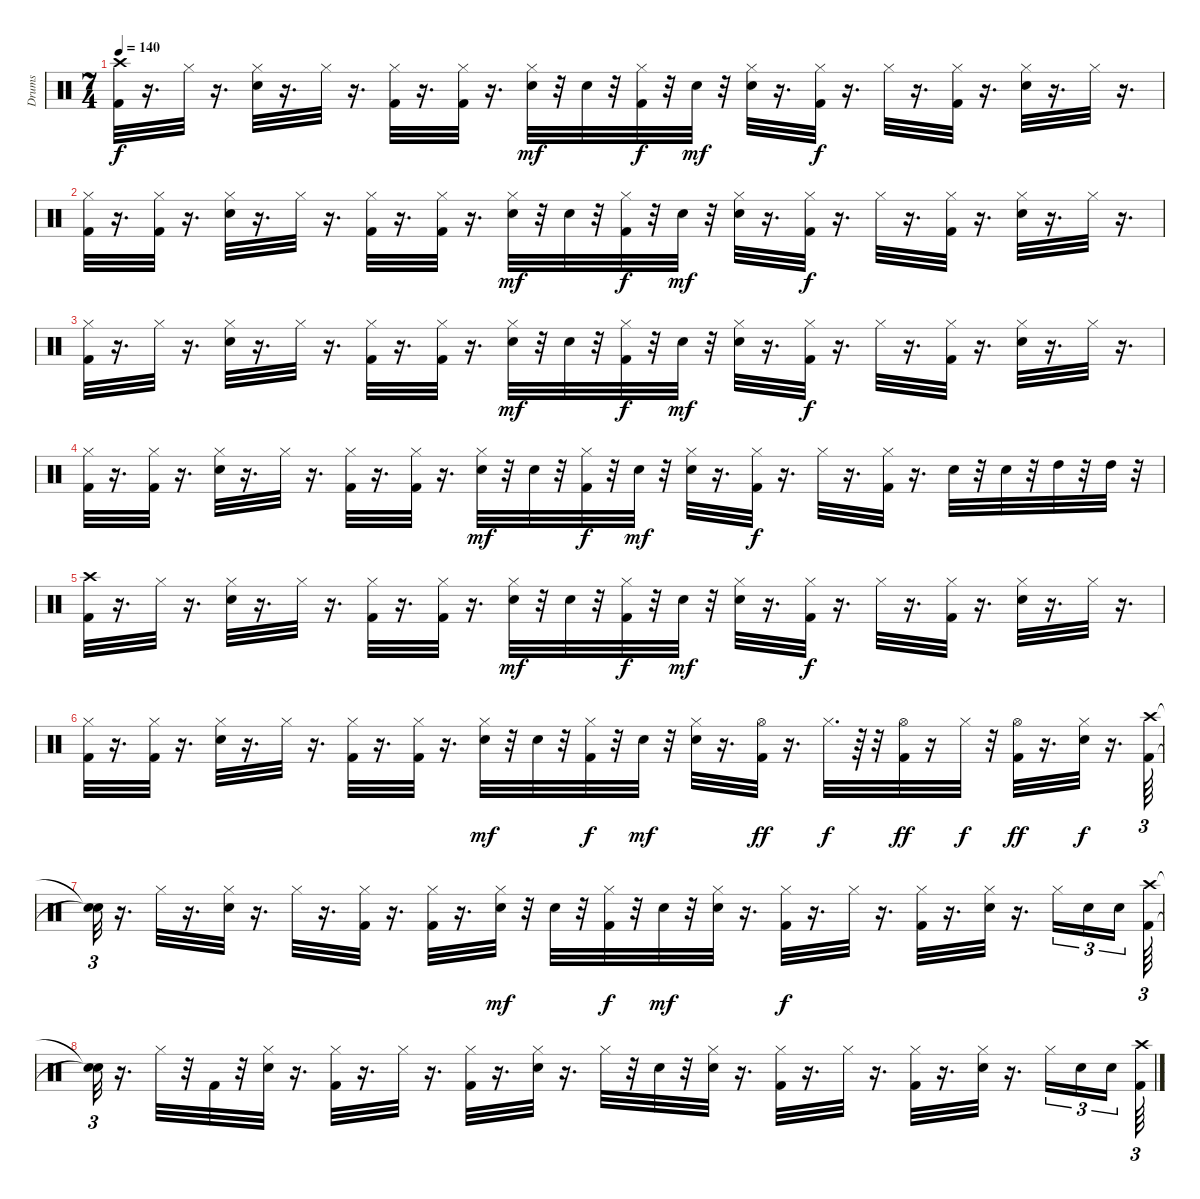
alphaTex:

\track ("Drums" "Drums") {instrument percussion}
\staff {score}
\articulation defaults
\ts (7 4)
\tempo 140
\clef neutral
\ks c
("Kick (hit) 2" "Crash high (hit)").32{dy f} r.16{d} "Hi-Hat (closed)".32 r.16{d} ("Hi-Hat (closed)" "Snare (hit) 2").32 r.16{d} "Hi-Hat (closed)".32 r.16{d} ("Kick (hit) 2" "Hi-Hat (closed)").32 r.16{d} ("Kick (hit) 2" "Hi-Hat (closed)").32 r.16{d} ("Snare (hit) 2" "Hi-Hat (closed)").32{dy mf} r.32 "Snare (hit) 2".32 r.32 ("Kick (hit) 2" "Hi-Hat (closed)").32{dy f} r.32 "Snare (hit) 2".32{dy mf} r.32 ("Snare (hit) 2" "Hi-Hat (closed)").32 r.16{d} ("Hi-Hat (closed)" "Kick (hit) 2").32{dy f} r.16{d} "Hi-Hat (closed)".32 r.16{d} ("Kick (hit) 2" "Hi-Hat (closed)").32 r.16{d} ("Snare (hit) 2" "Hi-Hat (closed)").32 r.16{d} "Hi-Hat (closed)".32 r.16{d} |
("Kick (hit) 2" "Hi-Hat (closed)").32 r.16{d} ("Kick (hit) 2" "Hi-Hat (closed)").32 r.16{d} ("Snare (hit) 2" "Hi-Hat (closed)").32 r.16{d} "Hi-Hat (closed)".32 r.16{d} ("Hi-Hat (closed)" "Kick (hit) 2").32 r.16{d} ("Hi-Hat (closed)" "Kick (hit) 2").32 r.16{d} ("Snare (hit) 2" "Hi-Hat (closed)").32{dy mf} r.32 "Snare (hit) 2".32 r.32 ("Kick (hit) 2" "Hi-Hat (closed)").32{dy f} r.32 "Snare (hit) 2".32{dy mf} r.32 ("Hi-Hat (closed)" "Snare (hit) 2").32 r.16{d} ("Kick (hit) 2" "Hi-Hat (closed)").32{dy f} r.16{d} "Hi-Hat (closed)".32 r.16{d} ("Kick (hit) 2" "Hi-Hat (closed)").32 r.16{d} ("Snare (hit) 2" "Hi-Hat (closed)").32 r.16{d} "Hi-Hat (closed)".32 r.16{d} |
("Kick (hit) 2" "Hi-Hat (closed)").32 r.16{d} "Hi-Hat (closed)".32 r.16{d} ("Hi-Hat (closed)" "Snare (hit) 2").32 r.16{d} "Hi-Hat (closed)".32 r.16{d} ("Kick (hit) 2" "Hi-Hat (closed)").32 r.16{d} ("Kick (hit) 2" "Hi-Hat (closed)").32 r.16{d} ("Snare (hit) 2" "Hi-Hat (closed)").32{dy mf} r.32 "Snare (hit) 2".32 r.32 ("Kick (hit) 2" "Hi-Hat (closed)").32{dy f} r.32 "Snare (hit) 2".32{dy mf} r.32 ("Snare (hit) 2" "Hi-Hat (closed)").32 r.16{d} ("Hi-Hat (closed)" "Kick (hit) 2").32{dy f} r.16{d} "Hi-Hat (closed)".32 r.16{d} ("Kick (hit) 2" "Hi-Hat (closed)").32 r.16{d} ("Snare (hit) 2" "Hi-Hat (closed)").32 r.16{d} "Hi-Hat (closed)".32 r.16{d} |
("Kick (hit) 2" "Hi-Hat (closed)").32 r.16{d} ("Kick (hit) 2" "Hi-Hat (closed)").32 r.16{d} ("Snare (hit) 2" "Hi-Hat (closed)").32 r.16{d} "Hi-Hat (closed)".32 r.16{d} ("Hi-Hat (closed)" "Kick (hit) 2").32 r.16{d} ("Hi-Hat (closed)" "Kick (hit) 2").32 r.16{d} ("Snare (hit) 2" "Hi-Hat (closed)").32{dy mf} r.32 "Snare (hit) 2".32 r.32 ("Kick (hit) 2" "Hi-Hat (closed)").32{dy f} r.32 "Snare (hit) 2".32{dy mf} r.32 ("Hi-Hat (closed)" "Snare (hit) 2").32 r.16{d} ("Kick (hit) 2" "Hi-Hat (closed)").32{dy f} r.16{d} "Hi-Hat (closed)".32 r.16{d} ("Kick (hit) 2" "Hi-Hat (closed)").32 r.16{d} "Snare (hit) 2".32 r.32 "Snare (hit) 2".32 r.32 "High Tom (hit)".32 r.32 "High Tom (hit)".32 r.32 |
("Kick (hit) 2" "Crash high (hit)").32 r.16{d} "Hi-Hat (closed)".32 r.16{d} ("Hi-Hat (closed)" "Snare (hit) 2").32 r.16{d} "Hi-Hat (closed)".32 r.16{d} ("Kick (hit) 2" "Hi-Hat (closed)").32 r.16{d} ("Kick (hit) 2" "Hi-Hat (closed)").32 r.16{d} ("Snare (hit) 2" "Hi-Hat (closed)").32{dy mf} r.32 "Snare (hit) 2".32 r.32 ("Kick (hit) 2" "Hi-Hat (closed)").32{dy f} r.32 "Snare (hit) 2".32{dy mf} r.32 ("Snare (hit) 2" "Hi-Hat (closed)").32 r.16{d} ("Hi-Hat (closed)" "Kick (hit) 2").32{dy f} r.16{d} "Hi-Hat (closed)".32 r.16{d} ("Kick (hit) 2" "Hi-Hat (closed)").32 r.16{d} ("Snare (hit) 2" "Hi-Hat (closed)").32 r.16{d} "Hi-Hat (closed)".32 r.16{d} |
("Kick (hit) 2" "Hi-Hat (closed)").32 r.16{d} ("Kick (hit) 2" "Hi-Hat (closed)").32 r.16{d} ("Snare (hit) 2" "Hi-Hat (closed)").32 r.16{d} "Hi-Hat (closed)".32 r.16{d} ("Hi-Hat (closed)" "Kick (hit) 2").32 r.16{d} ("Hi-Hat (closed)" "Kick (hit) 2").32 r.16{d} ("Snare (hit) 2" "Hi-Hat (closed)").32{dy mf} r.32 "Snare (hit) 2".32 r.32 ("Kick (hit) 2" "Hi-Hat (closed)").32{dy f} r.32 "Snare (hit) 2".32{dy mf} r.32 ("Hi-Hat (closed)" "Snare (hit) 2").32 r.16{d} ("Hi-Hat (open)" "Kick (hit) 2").32{dy ff} r.16{d} "Hi-Hat (closed)".32{d dy f} r.64 r.32 ("Kick (hit) 2" "Hi-Hat (open)").32{dy ff} r.16 "Hi-Hat (closed)".32{dy f} r.32 ("Hi-Hat (open)" "Kick (hit) 2").32{dy ff} r.16{d} ("Snare (hit) 2" "Hi-Hat (closed)").32{dy f} r.16{d} ("Kick (hit) 2" "Crash high (hit)").64{tu (3 2)} |
("Snare (hit)"{t} "Snare (hit)"{t}).32{tu (3 2)} r.16{d} "Hi-Hat (closed)".32 r.16{d} ("Hi-Hat (closed)" "Snare (hit) 2").32 r.16{d} "Hi-Hat (closed)".32 r.16{d} ("Kick (hit) 2" "Hi-Hat (closed)").32 r.16{d} ("Kick (hit) 2" "Hi-Hat (closed)").32 r.16{d} ("Snare (hit) 2" "Hi-Hat (closed)").32{dy mf} r.32 "Snare (hit) 2".32 r.32 ("Kick (hit) 2" "Hi-Hat (closed)").32{dy f} r.32 "Snare (hit) 2".32{dy mf} r.32 ("Snare (hit) 2" "Hi-Hat (closed)").32 r.16{d} ("Hi-Hat (closed)" "Kick (hit) 2").32{dy f} r.16{d} "Hi-Hat (closed)".32 r.16{d} ("Kick (hit) 2" "Hi-Hat (closed)").32 r.16{d} ("Snare (hit) 2" "Hi-Hat (closed)").32 r.16{d} "Hi-Hat (closed)".16{tu (3 2)} "Snare (hit) 2".16{tu (3 2)} "Snare (hit) 2".16{tu (3 2) beam splitsecondary} ("Kick (hit) 2" "Crash high (hit)").64{tu (3 2)} |
("Snare (hit)"{t} "Snare (hit)"{t}).32{tu (3 2)} r.16{d} "Hi-Hat (closed)".32 r.32 "Kick (hit) 2".32 r.32 ("Snare (hit) 2" "Hi-Hat (closed)").32 r.16{d} ("Hi-Hat (closed)" "Kick (hit) 2").32 r.16{d} "Hi-Hat (closed)".32 r.16{d} ("Hi-Hat (closed)" "Kick (hit) 2").32 r.16{d} ("Snare (hit) 2" "Hi-Hat (closed)").32 r.16{d} "Hi-Hat (closed)".32 r.32 "Snare (hit) 2".32 r.32 ("Snare (hit) 2" "Hi-Hat (closed)").32 r.16{d} ("Kick (hit) 2" "Hi-Hat (closed)").32 r.16{d} "Hi-Hat (closed)".32 r.16{d} ("Kick (hit) 2" "Hi-Hat (closed)").32 r.16{d} ("Snare (hit) 2" "Hi-Hat (closed)").32 r.16{d} "Hi-Hat (closed)".16{tu (3 2)} "Snare (hit) 2".16{tu (3 2)} "Snare (hit) 2".16{tu (3 2) beam splitsecondary} ("Kick (hit) 2" "Crash high (hit)").64{tu (3 2)}
